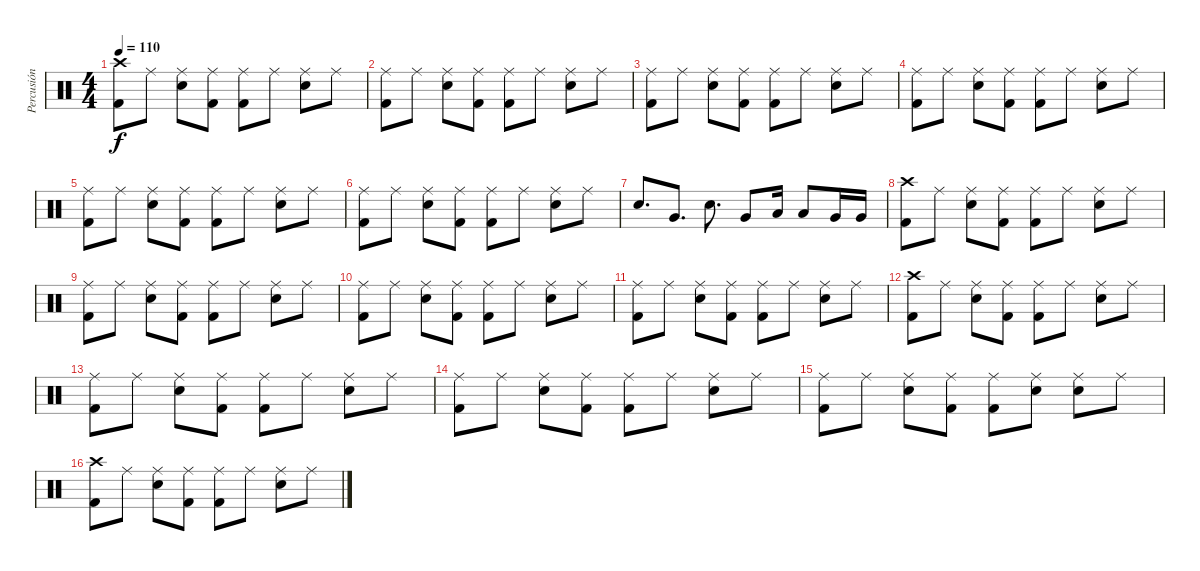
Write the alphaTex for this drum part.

\track ("Percusión" "Percusión") {instrument percussion}
\staff {score}
\articulation defaults
\ts (4 4)
\tempo 110
\clef neutral
\ks c
("Crash high (hit)" "Kick (hit) 2").8{dy f} "Ride (middle)".8 ("Ride (middle)" "Snare (hit) 2").8 ("Ride (middle)" "Kick (hit) 2").8 ("Ride (middle)" "Kick (hit) 2").8 "Ride (middle)".8 ("Ride (middle)" "Snare (hit) 2").8 "Ride (middle)".8 |
("Ride (middle)" "Kick (hit) 2").8 "Ride (middle)".8 ("Ride (middle)" "Snare (hit) 2").8 ("Ride (middle)" "Kick (hit) 2").8 ("Ride (middle)" "Kick (hit) 2").8 "Ride (middle)".8 ("Ride (middle)" "Snare (hit) 2").8 "Ride (middle)".8 |
("Ride (middle)" "Kick (hit) 2").8 "Ride (middle)".8 ("Ride (middle)" "Snare (hit) 2").8 ("Ride (middle)" "Kick (hit) 2").8 ("Ride (middle)" "Kick (hit) 2").8 "Ride (middle)".8 ("Ride (middle)" "Snare (hit) 2").8 "Ride (middle)".8 |
("Ride (middle)" "Kick (hit) 2").8 "Ride (middle)".8 ("Ride (middle)" "Snare (hit) 2").8 ("Ride (middle)" "Kick (hit) 2").8 ("Ride (middle)" "Kick (hit) 2").8 "Ride (middle)".8 ("Ride (middle)" "Snare (hit) 2").8 "Ride (middle)".8 |
("Ride (middle)" "Kick (hit) 2").8 "Ride (middle)".8 ("Ride (middle)" "Snare (hit) 2").8 ("Ride (middle)" "Kick (hit) 2").8 ("Ride (middle)" "Kick (hit) 2").8 "Ride (middle)".8 ("Ride (middle)" "Snare (hit) 2").8 "Ride (middle)".8 |
("Ride (middle)" "Kick (hit) 2").8 "Ride (middle)".8 ("Ride (middle)" "Snare (hit) 2").8 ("Ride (middle)" "Kick (hit) 2").8 ("Ride (middle)" "Kick (hit) 2").8 "Ride (middle)".8 ("Ride (middle)" "Snare (hit) 2").8 "Ride (middle)".8 |
"Snare (hit) 2".8{d} "Very Low Tom (hit)".8{d} "Snare (hit) 2".8{d} "Very Low Tom (hit)".8 "Low Floor Tom (hit)".16 "Low Floor Tom (hit)".8 "Very Low Tom (hit)".16 "Very Low Tom (hit)".16 |
("Crash high (hit)" "Kick (hit) 2").8 "Ride (middle)".8 ("Ride (middle)" "Snare (hit) 2").8 ("Ride (middle)" "Kick (hit) 2").8 ("Ride (middle)" "Kick (hit) 2").8 "Ride (middle)".8 ("Ride (middle)" "Snare (hit) 2").8 "Ride (middle)".8 |
("Ride (middle)" "Kick (hit) 2").8 "Ride (middle)".8 ("Ride (middle)" "Snare (hit) 2").8 ("Ride (middle)" "Kick (hit) 2").8 ("Ride (middle)" "Kick (hit) 2").8 "Ride (middle)".8 ("Ride (middle)" "Snare (hit) 2").8 "Ride (middle)".8 |
("Ride (middle)" "Kick (hit) 2").8 "Ride (middle)".8 ("Ride (middle)" "Snare (hit) 2").8 ("Ride (middle)" "Kick (hit) 2").8 ("Ride (middle)" "Kick (hit) 2").8 "Ride (middle)".8 ("Ride (middle)" "Snare (hit) 2").8 "Ride (middle)".8 |
("Ride (middle)" "Kick (hit) 2").8 "Ride (middle)".8 ("Ride (middle)" "Snare (hit) 2").8 ("Ride (middle)" "Kick (hit) 2").8 ("Ride (middle)" "Kick (hit) 2").8 "Ride (middle)".8 ("Ride (middle)" "Snare (hit) 2").8 "Ride (middle)".8 |
("Crash high (hit)" "Kick (hit) 2").8 "Ride (middle)".8 ("Ride (middle)" "Snare (hit) 2").8 ("Ride (middle)" "Kick (hit) 2").8 ("Ride (middle)" "Kick (hit) 2").8 "Ride (middle)".8 ("Ride (middle)" "Snare (hit) 2").8 "Ride (middle)".8 |
("Ride (middle)" "Kick (hit) 2").8 "Ride (middle)".8 ("Ride (middle)" "Snare (hit) 2").8 ("Ride (middle)" "Kick (hit) 2").8 ("Ride (middle)" "Kick (hit) 2").8 "Ride (middle)".8 ("Ride (middle)" "Snare (hit) 2").8 "Ride (middle)".8 |
("Ride (middle)" "Kick (hit) 2").8 "Ride (middle)".8 ("Ride (middle)" "Snare (hit) 2").8 ("Ride (middle)" "Kick (hit) 2").8 ("Ride (middle)" "Kick (hit) 2").8 "Ride (middle)".8 ("Ride (middle)" "Snare (hit) 2").8 "Ride (middle)".8 |
("Ride (middle)" "Kick (hit) 2").8 "Ride (middle)".8 ("Ride (middle)" "Snare (hit) 2").8 ("Ride (middle)" "Kick (hit) 2").8 ("Ride (middle)" "Kick (hit) 2").8 ("Ride (middle)" "Snare (hit) 2").8 ("Ride (middle)" "Snare (hit) 2").8 "Ride (middle)".8 |
("Crash high (hit)" "Kick (hit) 2").8 "Ride (middle)".8 ("Ride (middle)" "Snare (hit) 2").8 ("Ride (middle)" "Kick (hit) 2").8 ("Ride (middle)" "Kick (hit) 2").8 "Ride (middle)".8 ("Ride (middle)" "Snare (hit) 2").8 "Ride (middle)".8
